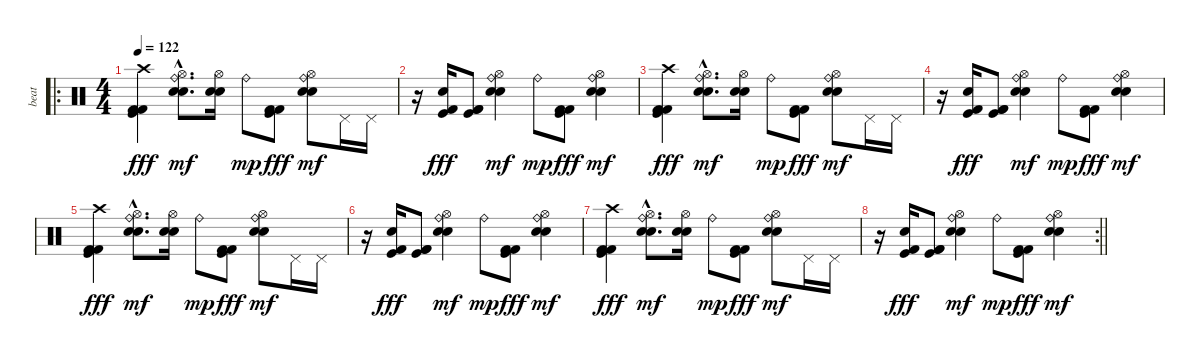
\track ("beat" "beat") {instrument percussion}
\staff {score}
\articulation defaults
\ro
\ts (4 4)
\tempo 122
\clef neutral
\ks c
("Kick (hit)" "Kick (hit) 2" "Kick (hit) 2" "Crash high (hit)").4{dy fff} ("Ride (bell)"{hac} "Snare (hit) 2"{hac} "Electric Snare (hit)"{hac} "Hi-Hat (open)"{hac}).8{d dy mf} ("Snare (hit) 2" "Electric Snare (hit)" "Hi-Hat (open)").16 "Ride (bell)".8{dy mp} ("Kick (hit)" "Kick (hit) 2" "Kick (hit) 2").8{dy fff} ("Ride (bell)" "Snare (hit) 2" "Electric Snare (hit)" "Hi-Hat (open)").8{dy mf} "Pedal Hi-Hat (hit)".16 "Pedal Hi-Hat (hit)".16 |
r.16 ("Kick (hit)" "Kick (hit) 2" "Snare (hit) 2").16{dy fff} ("Kick (hit)" "Kick (hit) 2" "Kick (hit) 2").8 ("Ride (bell)" "Snare (hit) 2" "Electric Snare (hit)" "Hi-Hat (open)").4{dy mf} "Ride (bell)".8{dy mp} ("Kick (hit)" "Kick (hit) 2" "Kick (hit) 2").8{dy fff} ("Ride (bell)" "Snare (hit) 2" "Electric Snare (hit)" "Hi-Hat (open)").4{dy mf} |
("Kick (hit)" "Kick (hit) 2" "Kick (hit) 2" "Crash high (hit)").4{dy fff} ("Ride (bell)"{hac} "Snare (hit) 2"{hac} "Electric Snare (hit)"{hac} "Hi-Hat (open)"{hac}).8{d dy mf} ("Snare (hit) 2" "Electric Snare (hit)" "Hi-Hat (open)").16 "Ride (bell)".8{dy mp} ("Kick (hit)" "Kick (hit) 2" "Kick (hit) 2").8{dy fff} ("Ride (bell)" "Snare (hit) 2" "Electric Snare (hit)" "Hi-Hat (open)").8{dy mf} "Pedal Hi-Hat (hit)".16 "Pedal Hi-Hat (hit)".16 |
r.16 ("Kick (hit)" "Kick (hit) 2" "Snare (hit) 2").16{dy fff} ("Kick (hit)" "Kick (hit) 2" "Kick (hit) 2").8 ("Ride (bell)" "Snare (hit) 2" "Electric Snare (hit)" "Hi-Hat (open)").4{dy mf} "Ride (bell)".8{dy mp} ("Kick (hit)" "Kick (hit) 2" "Kick (hit) 2").8{dy fff} ("Ride (bell)" "Snare (hit) 2" "Electric Snare (hit)" "Hi-Hat (open)").4{dy mf} |
("Kick (hit)" "Kick (hit) 2" "Kick (hit) 2" "Crash high (hit)").4{dy fff} ("Ride (bell)"{hac} "Snare (hit) 2"{hac} "Electric Snare (hit)"{hac} "Hi-Hat (open)"{hac}).8{d dy mf} ("Snare (hit) 2" "Electric Snare (hit)" "Hi-Hat (open)").16 "Ride (bell)".8{dy mp} ("Kick (hit)" "Kick (hit) 2" "Kick (hit) 2").8{dy fff} ("Ride (bell)" "Snare (hit) 2" "Electric Snare (hit)" "Hi-Hat (open)").8{dy mf} "Pedal Hi-Hat (hit)".16 "Pedal Hi-Hat (hit)".16 |
r.16 ("Kick (hit)" "Kick (hit) 2" "Snare (hit) 2").16{dy fff} ("Kick (hit)" "Kick (hit) 2" "Kick (hit) 2").8 ("Ride (bell)" "Snare (hit) 2" "Electric Snare (hit)" "Hi-Hat (open)").4{dy mf} "Ride (bell)".8{dy mp} ("Kick (hit)" "Kick (hit) 2" "Kick (hit) 2").8{dy fff} ("Ride (bell)" "Snare (hit) 2" "Electric Snare (hit)" "Hi-Hat (open)").4{dy mf} |
("Kick (hit)" "Kick (hit) 2" "Kick (hit) 2" "Crash high (hit)").4{dy fff} ("Ride (bell)"{hac} "Snare (hit) 2"{hac} "Electric Snare (hit)"{hac} "Hi-Hat (open)"{hac}).8{d dy mf} ("Snare (hit) 2" "Electric Snare (hit)" "Hi-Hat (open)").16 "Ride (bell)".8{dy mp} ("Kick (hit)" "Kick (hit) 2" "Kick (hit) 2").8{dy fff} ("Ride (bell)" "Snare (hit) 2" "Electric Snare (hit)" "Hi-Hat (open)").8{dy mf} "Pedal Hi-Hat (hit)".16 "Pedal Hi-Hat (hit)".16 |
\rc 2
\barLineRight lightlight
r.16 ("Kick (hit)" "Kick (hit) 2" "Snare (hit) 2").16{dy fff} ("Kick (hit)" "Kick (hit) 2" "Kick (hit) 2").8 ("Ride (bell)" "Snare (hit) 2" "Electric Snare (hit)" "Hi-Hat (open)").4{dy mf} "Ride (bell)".8{dy mp} ("Kick (hit)" "Kick (hit) 2" "Kick (hit) 2").8{dy fff} ("Ride (bell)" "Snare (hit) 2" "Electric Snare (hit)" "Hi-Hat (open)").4{dy mf}
